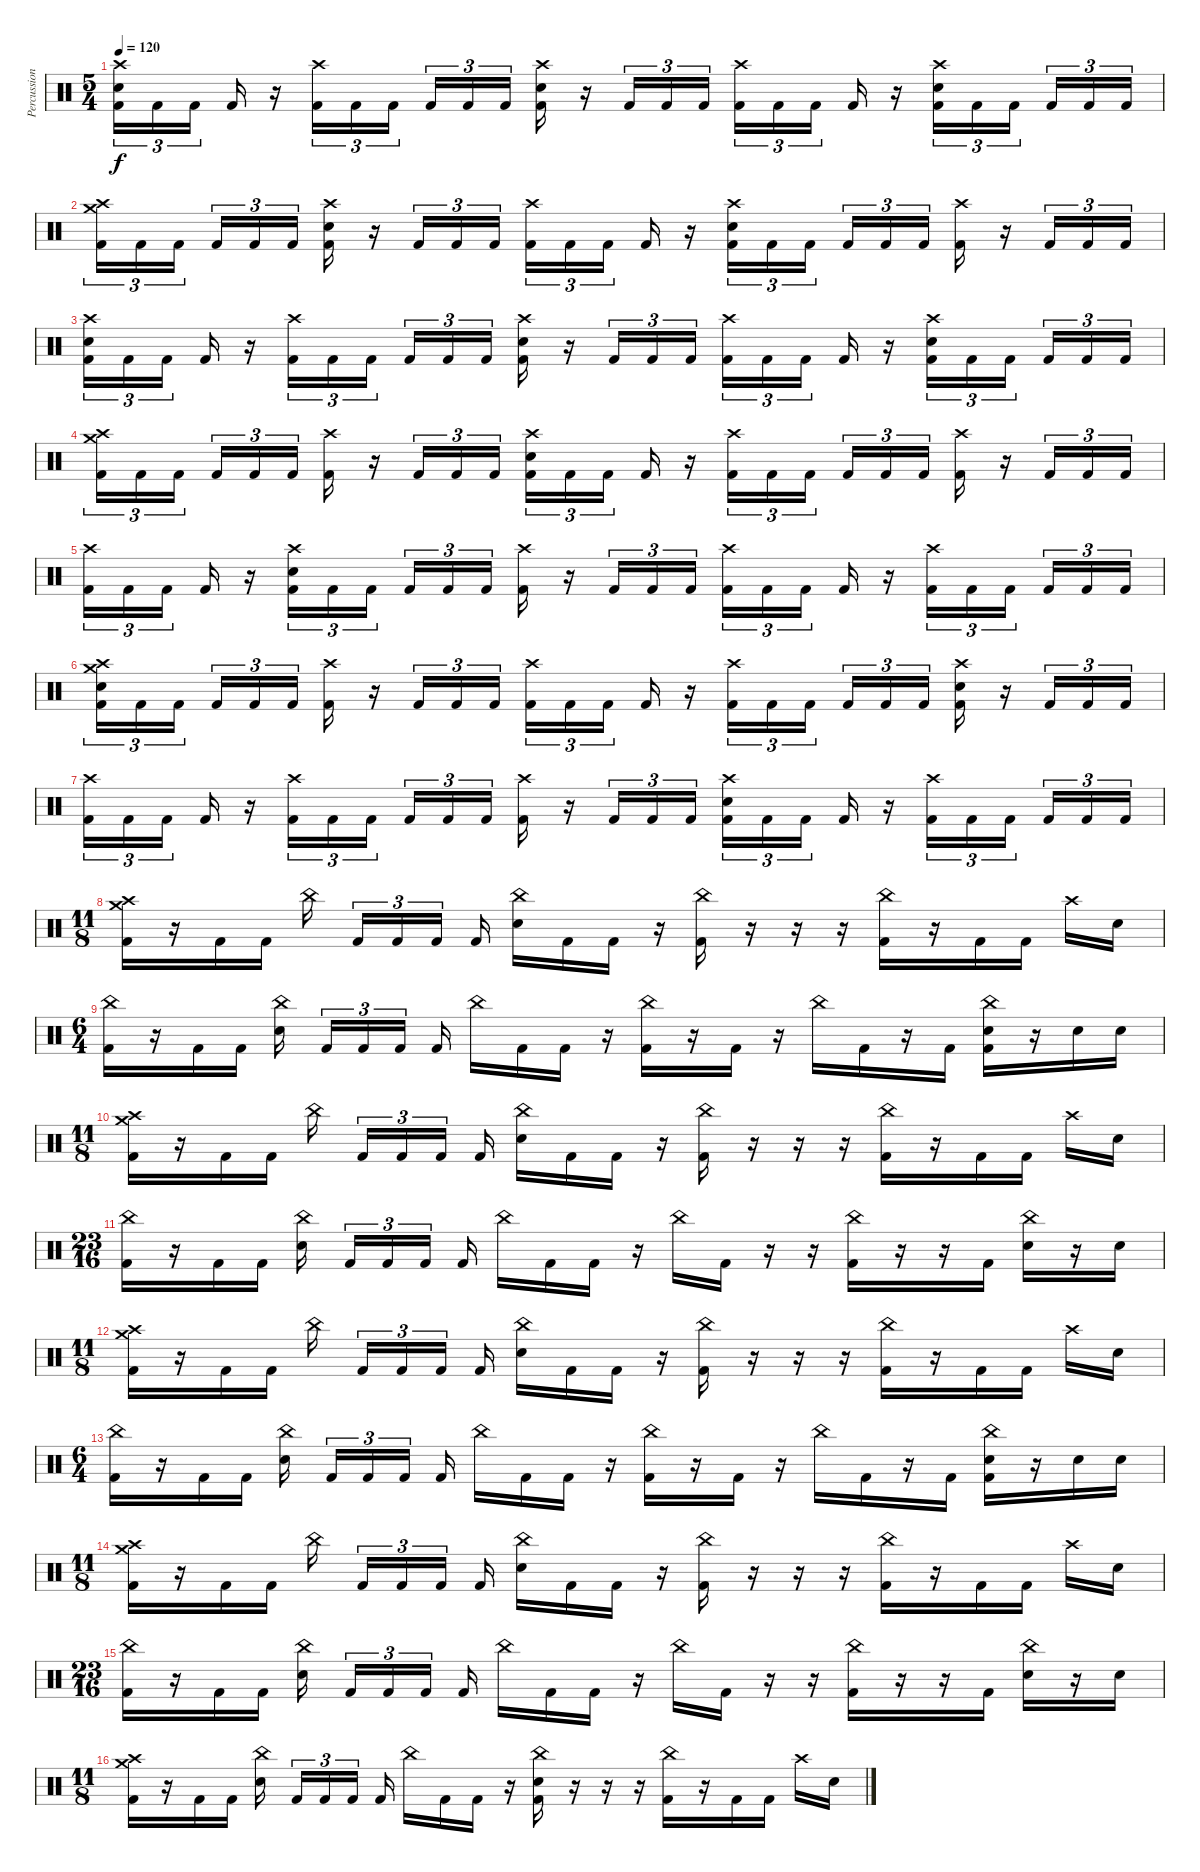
\track ("Percussion" "Percussion") {instrument percussion}
\staff {score}
\articulation defaults
\ts (5 4)
\tempo 120
\clef neutral
\ks c
("Crash high (hit)" "Electric Snare (hit)" "Kick (hit) 2").16{tu (3 2) dy f} "Kick (hit) 2".16{tu (3 2)} "Kick (hit) 2".16{tu (3 2) beam splitsecondary} "Kick (hit) 2".16 r.16 ("Crash high (hit)" "Kick (hit) 2").16{tu (3 2)} "Kick (hit) 2".16{tu (3 2)} "Kick (hit) 2".16{tu (3 2) beam splitsecondary} "Kick (hit) 2".16{tu (3 2)} "Kick (hit) 2".16{tu (3 2)} "Kick (hit) 2".16{tu (3 2)} ("Crash high (hit)" "Electric Snare (hit)" "Kick (hit) 2").16 r.16 "Kick (hit) 2".16{tu (3 2)} "Kick (hit) 2".16{tu (3 2)} "Kick (hit) 2".16{tu (3 2)} ("Crash high (hit)" "Kick (hit) 2").16{tu (3 2)} "Kick (hit) 2".16{tu (3 2)} "Kick (hit) 2".16{tu (3 2) beam splitsecondary} "Kick (hit) 2".16 r.16 ("Crash high (hit)" "Electric Snare (hit)" "Kick (hit) 2").16{tu (3 2)} "Kick (hit) 2".16{tu (3 2)} "Kick (hit) 2".16{tu (3 2) beam splitsecondary} "Kick (hit) 2".16{tu (3 2)} "Kick (hit) 2".16{tu (3 2)} "Kick (hit) 2".16{tu (3 2)} |
("Crash high (hit)" "Crash medium (hit)" "Kick (hit) 2").16{tu (3 2)} "Kick (hit) 2".16{tu (3 2)} "Kick (hit) 2".16{tu (3 2) beam splitsecondary} "Kick (hit) 2".16{tu (3 2)} "Kick (hit) 2".16{tu (3 2)} "Kick (hit) 2".16{tu (3 2)} ("Crash high (hit)" "Electric Snare (hit)" "Kick (hit) 2").16 r.16 "Kick (hit) 2".16{tu (3 2)} "Kick (hit) 2".16{tu (3 2)} "Kick (hit) 2".16{tu (3 2)} ("Crash high (hit)" "Kick (hit) 2").16{tu (3 2)} "Kick (hit) 2".16{tu (3 2)} "Kick (hit) 2".16{tu (3 2) beam splitsecondary} "Kick (hit) 2".16 r.16 ("Crash high (hit)" "Electric Snare (hit)" "Kick (hit) 2").16{tu (3 2)} "Kick (hit) 2".16{tu (3 2)} "Kick (hit) 2".16{tu (3 2) beam splitsecondary} "Kick (hit) 2".16{tu (3 2)} "Kick (hit) 2".16{tu (3 2)} "Kick (hit) 2".16{tu (3 2)} ("Crash high (hit)" "Kick (hit) 2").16 r.16 "Kick (hit) 2".16{tu (3 2)} "Kick (hit) 2".16{tu (3 2)} "Kick (hit) 2".16{tu (3 2)} |
("Crash high (hit)" "Electric Snare (hit)" "Kick (hit) 2").16{tu (3 2)} "Kick (hit) 2".16{tu (3 2)} "Kick (hit) 2".16{tu (3 2) beam splitsecondary} "Kick (hit) 2".16 r.16 ("Crash high (hit)" "Kick (hit) 2").16{tu (3 2)} "Kick (hit) 2".16{tu (3 2)} "Kick (hit) 2".16{tu (3 2) beam splitsecondary} "Kick (hit) 2".16{tu (3 2)} "Kick (hit) 2".16{tu (3 2)} "Kick (hit) 2".16{tu (3 2)} ("Crash high (hit)" "Electric Snare (hit)" "Kick (hit) 2").16 r.16 "Kick (hit) 2".16{tu (3 2)} "Kick (hit) 2".16{tu (3 2)} "Kick (hit) 2".16{tu (3 2)} ("Crash high (hit)" "Kick (hit) 2").16{tu (3 2)} "Kick (hit) 2".16{tu (3 2)} "Kick (hit) 2".16{tu (3 2) beam splitsecondary} "Kick (hit) 2".16 r.16 ("Crash high (hit)" "Electric Snare (hit)" "Kick (hit) 2").16{tu (3 2)} "Kick (hit) 2".16{tu (3 2)} "Kick (hit) 2".16{tu (3 2) beam splitsecondary} "Kick (hit) 2".16{tu (3 2)} "Kick (hit) 2".16{tu (3 2)} "Kick (hit) 2".16{tu (3 2)} |
("Crash high (hit)" "Crash medium (hit)" "Kick (hit) 2").16{tu (3 2)} "Kick (hit) 2".16{tu (3 2)} "Kick (hit) 2".16{tu (3 2) beam splitsecondary} "Kick (hit) 2".16{tu (3 2)} "Kick (hit) 2".16{tu (3 2)} "Kick (hit) 2".16{tu (3 2)} ("Crash high (hit)" "Kick (hit) 2").16 r.16 "Kick (hit) 2".16{tu (3 2)} "Kick (hit) 2".16{tu (3 2)} "Kick (hit) 2".16{tu (3 2)} ("Crash high (hit)" "Electric Snare (hit)" "Kick (hit) 2").16{tu (3 2)} "Kick (hit) 2".16{tu (3 2)} "Kick (hit) 2".16{tu (3 2) beam splitsecondary} "Kick (hit) 2".16 r.16 ("Crash high (hit)" "Kick (hit) 2").16{tu (3 2)} "Kick (hit) 2".16{tu (3 2)} "Kick (hit) 2".16{tu (3 2) beam splitsecondary} "Kick (hit) 2".16{tu (3 2)} "Kick (hit) 2".16{tu (3 2)} "Kick (hit) 2".16{tu (3 2)} ("Crash high (hit)" "Kick (hit) 2").16 r.16 "Kick (hit) 2".16{tu (3 2)} "Kick (hit) 2".16{tu (3 2)} "Kick (hit) 2".16{tu (3 2)} |
("Crash high (hit)" "Kick (hit) 2").16{tu (3 2)} "Kick (hit) 2".16{tu (3 2)} "Kick (hit) 2".16{tu (3 2) beam splitsecondary} "Kick (hit) 2".16 r.16 ("Crash high (hit)" "Electric Snare (hit)" "Kick (hit) 2").16{tu (3 2)} "Kick (hit) 2".16{tu (3 2)} "Kick (hit) 2".16{tu (3 2) beam splitsecondary} "Kick (hit) 2".16{tu (3 2)} "Kick (hit) 2".16{tu (3 2)} "Kick (hit) 2".16{tu (3 2)} ("Crash high (hit)" "Kick (hit) 2").16 r.16 "Kick (hit) 2".16{tu (3 2)} "Kick (hit) 2".16{tu (3 2)} "Kick (hit) 2".16{tu (3 2)} ("Crash high (hit)" "Kick (hit) 2").16{tu (3 2)} "Kick (hit) 2".16{tu (3 2)} "Kick (hit) 2".16{tu (3 2) beam splitsecondary} "Kick (hit) 2".16 r.16 ("Crash high (hit)" "Kick (hit) 2").16{tu (3 2)} "Kick (hit) 2".16{tu (3 2)} "Kick (hit) 2".16{tu (3 2) beam splitsecondary} "Kick (hit) 2".16{tu (3 2)} "Kick (hit) 2".16{tu (3 2)} "Kick (hit) 2".16{tu (3 2)} |
("Crash high (hit)" "Crash medium (hit)" "Electric Snare (hit)" "Kick (hit) 2").16{tu (3 2)} "Kick (hit) 2".16{tu (3 2)} "Kick (hit) 2".16{tu (3 2) beam splitsecondary} "Kick (hit) 2".16{tu (3 2)} "Kick (hit) 2".16{tu (3 2)} "Kick (hit) 2".16{tu (3 2)} ("Crash high (hit)" "Kick (hit) 2").16 r.16 "Kick (hit) 2".16{tu (3 2)} "Kick (hit) 2".16{tu (3 2)} "Kick (hit) 2".16{tu (3 2)} ("Crash high (hit)" "Kick (hit) 2").16{tu (3 2)} "Kick (hit) 2".16{tu (3 2)} "Kick (hit) 2".16{tu (3 2) beam splitsecondary} "Kick (hit) 2".16 r.16 ("Crash high (hit)" "Kick (hit) 2").16{tu (3 2)} "Kick (hit) 2".16{tu (3 2)} "Kick (hit) 2".16{tu (3 2) beam splitsecondary} "Kick (hit) 2".16{tu (3 2)} "Kick (hit) 2".16{tu (3 2)} "Kick (hit) 2".16{tu (3 2)} ("Crash high (hit)" "Electric Snare (hit)" "Kick (hit) 2").16 r.16 "Kick (hit) 2".16{tu (3 2)} "Kick (hit) 2".16{tu (3 2)} "Kick (hit) 2".16{tu (3 2)} |
("Crash high (hit)" "Kick (hit) 2").16{tu (3 2)} "Kick (hit) 2".16{tu (3 2)} "Kick (hit) 2".16{tu (3 2) beam splitsecondary} "Kick (hit) 2".16 r.16 ("Crash high (hit)" "Kick (hit) 2").16{tu (3 2)} "Kick (hit) 2".16{tu (3 2)} "Kick (hit) 2".16{tu (3 2) beam splitsecondary} "Kick (hit) 2".16{tu (3 2)} "Kick (hit) 2".16{tu (3 2)} "Kick (hit) 2".16{tu (3 2)} ("Crash high (hit)" "Kick (hit) 2").16 r.16 "Kick (hit) 2".16{tu (3 2)} "Kick (hit) 2".16{tu (3 2)} "Kick (hit) 2".16{tu (3 2)} ("Crash high (hit)" "Electric Snare (hit)" "Kick (hit) 2").16{tu (3 2)} "Kick (hit) 2".16{tu (3 2)} "Kick (hit) 2".16{tu (3 2) beam splitsecondary} "Kick (hit) 2".16 r.16 ("Crash high (hit)" "Kick (hit) 2").16{tu (3 2)} "Kick (hit) 2".16{tu (3 2)} "Kick (hit) 2".16{tu (3 2) beam splitsecondary} "Kick (hit) 2".16{tu (3 2)} "Kick (hit) 2".16{tu (3 2)} "Kick (hit) 2".16{tu (3 2)} |
\ts (11 8)
("Crash high (hit)" "Crash medium (hit)" "Kick (hit) 2").16 r.16 "Kick (hit) 2".16 "Kick (hit) 2".16 "China (hit)".16{beam splitsecondary} "Kick (hit) 2".16{tu (3 2)} "Kick (hit) 2".16{tu (3 2)} "Kick (hit) 2".16{tu (3 2)} "Kick (hit) 2".16 ("China (hit)" "Electric Snare (hit)").16 "Kick (hit) 2".16 "Kick (hit) 2".16 r.16 ("China (hit)" "Kick (hit) 2").16 r.16 r.16 r.16 ("China (hit)" "Kick (hit) 2").16 r.16 "Kick (hit) 2".16 "Kick (hit) 2".16 "Crash high (hit)".16 "Electric Snare (hit)".16 |
\ts (6 4)
("China (hit)" "Kick (hit) 2").16 r.16 "Kick (hit) 2".16 "Kick (hit) 2".16 ("China (hit)" "Electric Snare (hit)").16{beam splitsecondary} "Kick (hit) 2".16{tu (3 2)} "Kick (hit) 2".16{tu (3 2)} "Kick (hit) 2".16{tu (3 2) beam splitsecondary} "Kick (hit) 2".16 "China (hit)".16 "Kick (hit) 2".16 "Kick (hit) 2".16 r.16 ("China (hit)" "Kick (hit) 2").16 r.16 "Kick (hit) 2".16 r.16 "China (hit)".16 "Kick (hit) 2".16 r.16 "Kick (hit) 2".16 ("China (hit)" "Electric Snare (hit)" "Kick (hit) 2").16 r.16 "Electric Snare (hit)".16 "Electric Snare (hit)".16 |
\ts (11 8)
("Crash high (hit)" "Crash medium (hit)" "Kick (hit) 2").16 r.16 "Kick (hit) 2".16 "Kick (hit) 2".16 "China (hit)".16{beam splitsecondary} "Kick (hit) 2".16{tu (3 2)} "Kick (hit) 2".16{tu (3 2)} "Kick (hit) 2".16{tu (3 2)} "Kick (hit) 2".16 ("China (hit)" "Electric Snare (hit)").16 "Kick (hit) 2".16 "Kick (hit) 2".16 r.16 ("China (hit)" "Kick (hit) 2").16 r.16 r.16 r.16 ("China (hit)" "Kick (hit) 2").16 r.16 "Kick (hit) 2".16 "Kick (hit) 2".16 "Crash high (hit)".16 "Electric Snare (hit)".16 |
\ts (23 16)
("China (hit)" "Kick (hit) 2").16 r.16 "Kick (hit) 2".16 "Kick (hit) 2".16 ("China (hit)" "Electric Snare (hit)").16 "Kick (hit) 2".16{tu (3 2)} "Kick (hit) 2".16{tu (3 2)} "Kick (hit) 2".16{tu (3 2)} "Kick (hit) 2".16 "China (hit)".16 "Kick (hit) 2".16 "Kick (hit) 2".16 r.16 "China (hit)".16 "Kick (hit) 2".16 r.16 r.16 ("China (hit)" "Kick (hit) 2").16 r.16 r.16 "Kick (hit) 2".16 ("China (hit)" "Electric Snare (hit)").16 r.16 "Electric Snare (hit)".16 |
\ts (11 8)
("Crash high (hit)" "Crash medium (hit)" "Kick (hit) 2").16 r.16 "Kick (hit) 2".16 "Kick (hit) 2".16 "China (hit)".16{beam splitsecondary} "Kick (hit) 2".16{tu (3 2)} "Kick (hit) 2".16{tu (3 2)} "Kick (hit) 2".16{tu (3 2)} "Kick (hit) 2".16 ("China (hit)" "Electric Snare (hit)").16 "Kick (hit) 2".16 "Kick (hit) 2".16 r.16 ("China (hit)" "Kick (hit) 2").16 r.16 r.16 r.16 ("China (hit)" "Kick (hit) 2").16 r.16 "Kick (hit) 2".16 "Kick (hit) 2".16 "Crash high (hit)".16 "Electric Snare (hit)".16 |
\ts (6 4)
("China (hit)" "Kick (hit) 2").16 r.16 "Kick (hit) 2".16 "Kick (hit) 2".16 ("China (hit)" "Electric Snare (hit)").16{beam splitsecondary} "Kick (hit) 2".16{tu (3 2)} "Kick (hit) 2".16{tu (3 2)} "Kick (hit) 2".16{tu (3 2) beam splitsecondary} "Kick (hit) 2".16 "China (hit)".16 "Kick (hit) 2".16 "Kick (hit) 2".16 r.16 ("China (hit)" "Kick (hit) 2").16 r.16 "Kick (hit) 2".16 r.16 "China (hit)".16 "Kick (hit) 2".16 r.16 "Kick (hit) 2".16 ("China (hit)" "Electric Snare (hit)" "Kick (hit) 2").16 r.16 "Electric Snare (hit)".16 "Electric Snare (hit)".16 |
\ts (11 8)
("Crash high (hit)" "Crash medium (hit)" "Kick (hit) 2").16 r.16 "Kick (hit) 2".16 "Kick (hit) 2".16 "China (hit)".16{beam splitsecondary} "Kick (hit) 2".16{tu (3 2)} "Kick (hit) 2".16{tu (3 2)} "Kick (hit) 2".16{tu (3 2)} "Kick (hit) 2".16 ("China (hit)" "Electric Snare (hit)").16 "Kick (hit) 2".16 "Kick (hit) 2".16 r.16 ("China (hit)" "Kick (hit) 2").16 r.16 r.16 r.16 ("China (hit)" "Kick (hit) 2").16 r.16 "Kick (hit) 2".16 "Kick (hit) 2".16 "Crash high (hit)".16 "Electric Snare (hit)".16 |
\ts (23 16)
("China (hit)" "Kick (hit) 2").16 r.16 "Kick (hit) 2".16 "Kick (hit) 2".16 ("China (hit)" "Electric Snare (hit)").16 "Kick (hit) 2".16{tu (3 2)} "Kick (hit) 2".16{tu (3 2)} "Kick (hit) 2".16{tu (3 2)} "Kick (hit) 2".16 "China (hit)".16 "Kick (hit) 2".16 "Kick (hit) 2".16 r.16 "China (hit)".16 "Kick (hit) 2".16 r.16 r.16 ("China (hit)" "Kick (hit) 2").16 r.16 r.16 "Kick (hit) 2".16 ("China (hit)" "Electric Snare (hit)").16 r.16 "Electric Snare (hit)".16 |
\ts (11 8)
("Crash high (hit)" "Crash medium (hit)" "Kick (hit) 2").16 r.16 "Kick (hit) 2".16 "Kick (hit) 2".16 ("China (hit)" "Electric Snare (hit)").16{beam splitsecondary} "Kick (hit) 2".16{tu (3 2)} "Kick (hit) 2".16{tu (3 2)} "Kick (hit) 2".16{tu (3 2)} "Kick (hit) 2".16 "China (hit)".16 "Kick (hit) 2".16 "Kick (hit) 2".16 r.16 ("China (hit)" "Electric Snare (hit)" "Kick (hit) 2").16 r.16 r.16 r.16 ("China (hit)" "Kick (hit) 2").16 r.16 "Kick (hit) 2".16 "Kick (hit) 2".16 "Crash high (hit)".16 "Electric Snare (hit)".16
